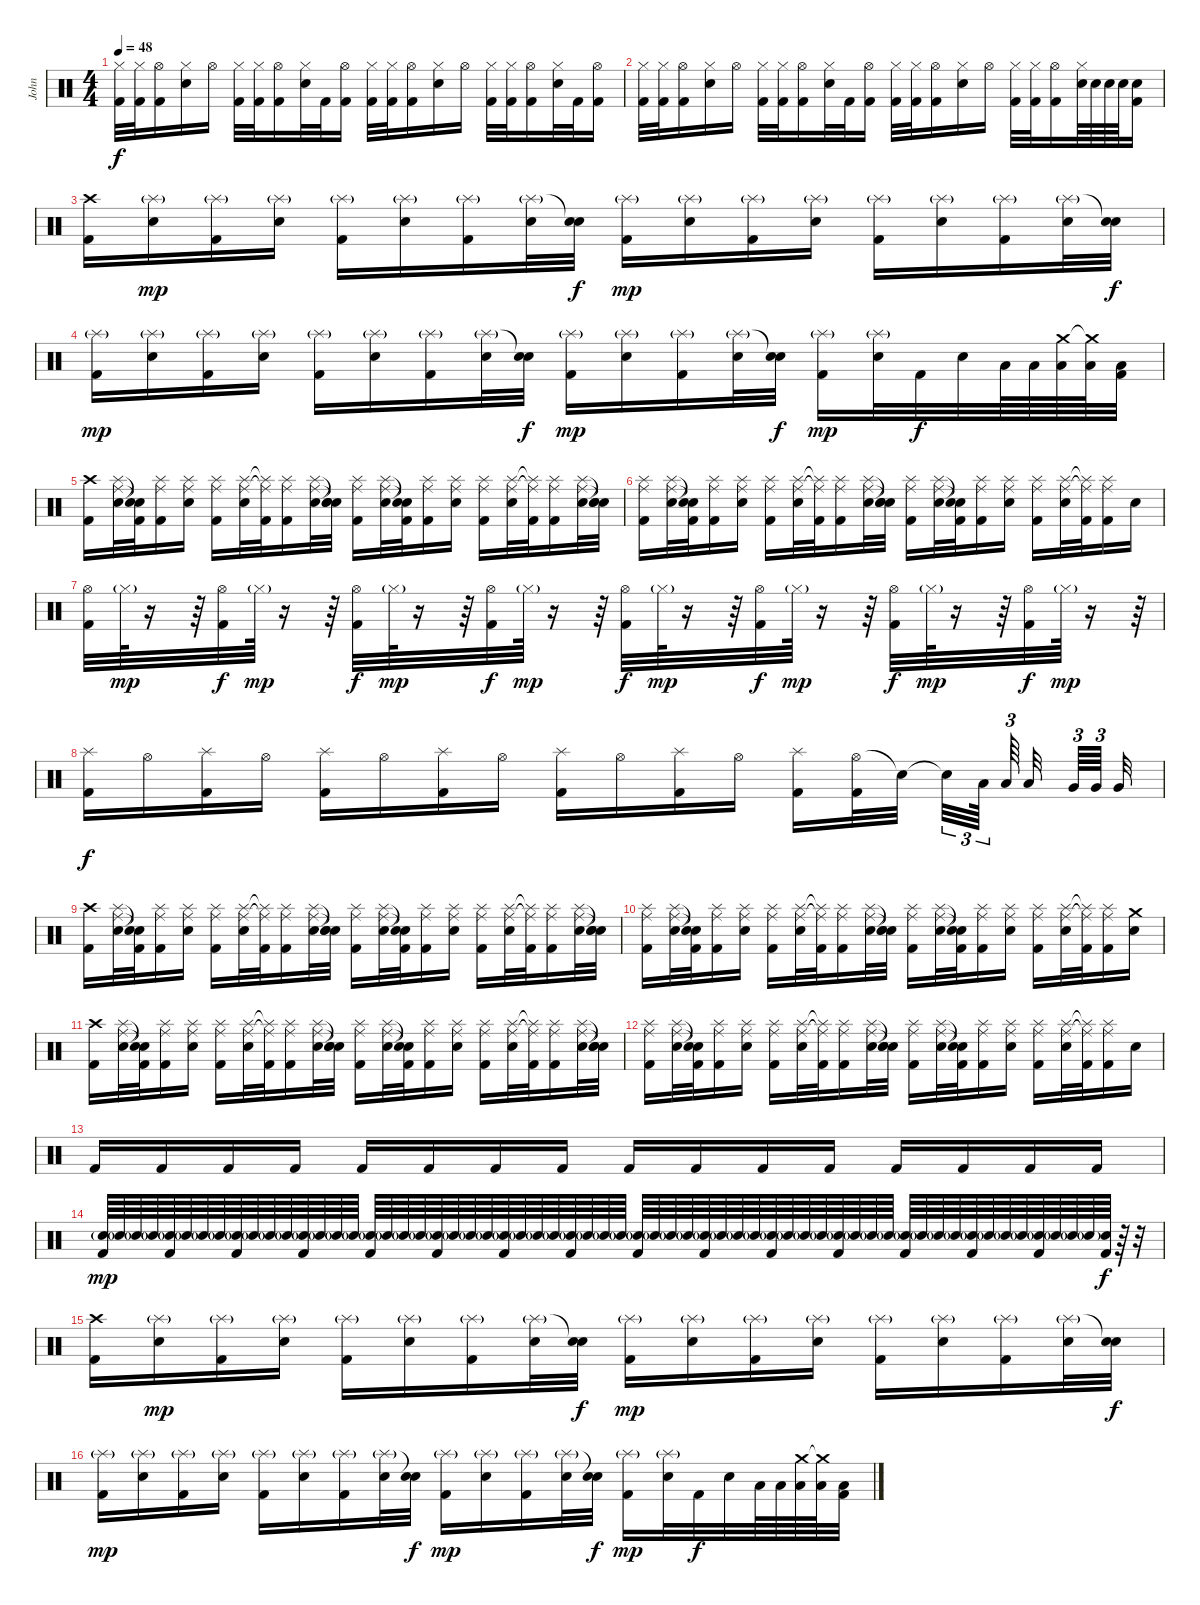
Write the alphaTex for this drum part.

\track ("John" "John") {instrument percussion}
\staff {score}
\articulation defaults
\ts (4 4)
\tempo 48
\clef neutral
\ks c
("Hi-Hat (closed)" "Kick (hit) 2").32{dy f} ("Hi-Hat (closed)" "Kick (hit) 2").32 ("Hi-Hat (open)" "Kick (hit) 2").16 ("Hi-Hat (closed)" "Electric Snare (hit)").16 "Hi-Hat (open)".16 ("Hi-Hat (closed)" "Kick (hit) 2").32 ("Hi-Hat (closed)" "Kick (hit) 2").32 ("Hi-Hat (open)" "Kick (hit) 2").16 ("Hi-Hat (closed)" "Electric Snare (hit)").32 "Kick (hit) 2".32 ("Hi-Hat (open)" "Kick (hit) 2").16 ("Hi-Hat (closed)" "Kick (hit) 2").32 ("Hi-Hat (closed)" "Kick (hit) 2").32 ("Hi-Hat (open)" "Kick (hit) 2").16 ("Hi-Hat (closed)" "Electric Snare (hit)").16 "Hi-Hat (open)".16 ("Hi-Hat (closed)" "Kick (hit) 2").32 ("Hi-Hat (closed)" "Kick (hit) 2").32 ("Hi-Hat (open)" "Kick (hit) 2").16 ("Hi-Hat (closed)" "Electric Snare (hit)").32 "Kick (hit) 2".32 ("Hi-Hat (open)" "Kick (hit) 2").16 |
("Hi-Hat (closed)" "Kick (hit) 2").32 ("Hi-Hat (closed)" "Kick (hit) 2").32 ("Hi-Hat (open)" "Kick (hit) 2").16 ("Hi-Hat (closed)" "Electric Snare (hit)").16 "Hi-Hat (open)".16 ("Hi-Hat (closed)" "Kick (hit) 2").32 ("Hi-Hat (closed)" "Kick (hit) 2").32 ("Hi-Hat (open)" "Kick (hit) 2").16 ("Hi-Hat (closed)" "Electric Snare (hit)").32 "Kick (hit) 2".32 ("Hi-Hat (open)" "Kick (hit) 2").16 ("Hi-Hat (closed)" "Kick (hit) 2").32 ("Hi-Hat (closed)" "Kick (hit) 2").32 ("Hi-Hat (open)" "Kick (hit) 2").16 ("Hi-Hat (closed)" "Electric Snare (hit)").16 "Hi-Hat (open)".16 ("Hi-Hat (closed)" "Kick (hit) 2").32 ("Hi-Hat (closed)" "Kick (hit) 2").32 ("Hi-Hat (open)" "Kick (hit) 2").16 ("Hi-Hat (closed)" "Electric Snare (hit)").64 "Electric Snare (hit)".64 "Electric Snare (hit)".64 "Electric Snare (hit)".64 ("Electric Snare (hit)" "Kick (hit) 2").16 |
("Crash high (hit)" "Kick (hit) 2").16 ("Splash (hit)"{g} "Electric Snare (hit)").16{dy mp} ("Splash (hit)"{g} "Kick (hit) 2").16 ("Splash (hit)"{g} "Electric Snare (hit)").16 ("Splash (hit)"{g} "Kick (hit) 2").16 ("Splash (hit)"{g} "Electric Snare (hit)").16 ("Splash (hit)"{g} "Kick (hit) 2").16 ("Splash (hit)"{g} "Electric Snare (hit)").32 ("Snare (hit)"{t} "Electric Snare (hit)").32{dy f} ("Splash (hit)"{g} "Kick (hit) 2").16{dy mp} ("Splash (hit)"{g} "Electric Snare (hit)").16 ("Splash (hit)"{g} "Kick (hit) 2").16 ("Splash (hit)"{g} "Electric Snare (hit)").16 ("Splash (hit)"{g} "Kick (hit) 2").16 ("Splash (hit)"{g} "Electric Snare (hit)").16 ("Splash (hit)"{g} "Kick (hit) 2").16 ("Splash (hit)"{g} "Electric Snare (hit)").32 ("Snare (hit)"{t} "Electric Snare (hit)").32{dy f} |
("Splash (hit)"{g} "Kick (hit) 2").16{dy mp} ("Splash (hit)"{g} "Electric Snare (hit)").16 ("Splash (hit)"{g} "Kick (hit) 2").16 ("Splash (hit)"{g} "Electric Snare (hit)").16 ("Splash (hit)"{g} "Kick (hit) 2").16 ("Splash (hit)"{g} "Electric Snare (hit)").16 ("Splash (hit)"{g} "Kick (hit) 2").16 ("Splash (hit)"{g} "Electric Snare (hit)").32 ("Snare (hit)"{t} "Electric Snare (hit)").32{dy f} ("Splash (hit)"{g} "Kick (hit) 2").16{dy mp} ("Splash (hit)"{g} "Electric Snare (hit)").16 ("Splash (hit)"{g} "Kick (hit) 2").16 ("Splash (hit)"{g} "Electric Snare (hit)").32 ("Snare (hit)"{t} "Electric Snare (hit)").32{dy f} ("Splash (hit)"{g} "Kick (hit) 2").16{dy mp} ("Splash (hit)"{g} "Electric Snare (hit)").32 "Kick (hit) 2".32{dy f} "Electric Snare (hit)".32 "Low Tom (hit)".64 "Low Tom (hit)".64 ("Crash medium (hit)" "Low Tom (hit)").64 ("Crash medium (hit)"{t} "Low Tom (hit)").64 ("Low Tom (hit)" "Kick (hit) 2").32 |
("Crash high (hit)" "Kick (hit) 2").16 ("Splash (hit)" "Ride (middle)" "Electric Snare (hit)").32 ("Snare (hit)"{t} "Snare (hit)"{t} "Kick (hit) 2").32 ("Splash (hit)" "Ride (middle)" "Kick (hit) 2").16 ("Splash (hit)" "Ride (middle)" "Electric Snare (hit)").16 ("Splash (hit)" "Ride (middle)" "Kick (hit) 2").16 ("Splash (hit)" "Ride (middle)" "Electric Snare (hit)").32 ("Splash (hit)"{t} "Ride (middle)"{t} "Kick (hit) 2").32 ("Splash (hit)" "Ride (middle)" "Kick (hit) 2").16 ("Splash (hit)" "Ride (middle)" "Electric Snare (hit)").32 ("Snare (hit)"{t} "Snare (hit)"{t} "Electric Snare (hit)").32 ("Splash (hit)" "Ride (middle)" "Kick (hit) 2").16 ("Splash (hit)" "Ride (middle)" "Electric Snare (hit)").32 ("Snare (hit)"{t} "Snare (hit)"{t} "Kick (hit) 2").32 ("Splash (hit)" "Ride (middle)" "Kick (hit) 2").16 ("Splash (hit)" "Ride (middle)" "Electric Snare (hit)").16 ("Splash (hit)" "Ride (middle)" "Kick (hit) 2").16 ("Splash (hit)" "Ride (middle)" "Electric Snare (hit)").32 ("Splash (hit)"{t} "Ride (middle)"{t} "Kick (hit) 2").32 ("Splash (hit)" "Ride (middle)" "Kick (hit) 2").16 ("Splash (hit)" "Ride (middle)" "Electric Snare (hit)").32 ("Snare (hit)"{t} "Snare (hit)"{t} "Electric Snare (hit)").32 |
("Splash (hit)" "Ride (middle)" "Kick (hit) 2").16 ("Splash (hit)" "Ride (middle)" "Electric Snare (hit)").32 ("Snare (hit)"{t} "Snare (hit)"{t} "Kick (hit) 2").32 ("Splash (hit)" "Ride (middle)" "Kick (hit) 2").16 ("Splash (hit)" "Ride (middle)" "Electric Snare (hit)").16 ("Splash (hit)" "Ride (middle)" "Kick (hit) 2").16 ("Splash (hit)" "Ride (middle)" "Electric Snare (hit)").32 ("Splash (hit)"{t} "Ride (middle)"{t} "Kick (hit) 2").32 ("Splash (hit)" "Ride (middle)" "Kick (hit) 2").16 ("Splash (hit)" "Ride (middle)" "Electric Snare (hit)").32 ("Snare (hit)"{t} "Snare (hit)"{t} "Electric Snare (hit)").32 ("Splash (hit)" "Ride (middle)" "Kick (hit) 2").16 ("Splash (hit)" "Ride (middle)" "Electric Snare (hit)").32 ("Snare (hit)"{t} "Snare (hit)"{t} "Kick (hit) 2").32 ("Splash (hit)" "Ride (middle)" "Kick (hit) 2").16 ("Splash (hit)" "Ride (middle)" "Electric Snare (hit)").16 ("Splash (hit)" "Ride (middle)" "Kick (hit) 2").16 ("Splash (hit)" "Ride (middle)" "Electric Snare (hit)").32 ("Splash (hit)"{t} "Ride (middle)"{t} "Kick (hit) 2").32 ("Splash (hit)" "Ride (middle)" "Kick (hit) 2").16 "Electric Snare (hit)".16 |
("Hi-Hat (open)" "Kick (hit) 2").32 "Hi-Hat (closed)"{g}.64{dy mp} r.16 r.64 ("Hi-Hat (open)" "Kick (hit) 2").32{dy f} "Hi-Hat (closed)"{g}.64{dy mp} r.16 r.64 ("Hi-Hat (open)" "Kick (hit) 2").32{dy f} "Hi-Hat (closed)"{g}.64{dy mp} r.16 r.64 ("Hi-Hat (open)" "Kick (hit) 2").32{dy f} "Hi-Hat (closed)"{g}.64{dy mp} r.16 r.64 ("Hi-Hat (open)" "Kick (hit) 2").32{dy f} "Hi-Hat (closed)"{g}.64{dy mp} r.16 r.64 ("Hi-Hat (open)" "Kick (hit) 2").32{dy f} "Hi-Hat (closed)"{g}.64{dy mp} r.16 r.64 ("Hi-Hat (open)" "Kick (hit) 2").32{dy f} "Hi-Hat (closed)"{g}.64{dy mp} r.16 r.64 ("Hi-Hat (open)" "Kick (hit) 2").32{dy f} "Hi-Hat (closed)"{g}.64{dy mp} r.16 r.64 |
("Splash (hit)" "Kick (hit) 2").16{dy f} "Hi-Hat (open)".16 ("Splash (hit)" "Kick (hit) 2").16 "Hi-Hat (open)".16 ("Splash (hit)" "Kick (hit) 2").16 "Hi-Hat (open)".16 ("Splash (hit)" "Kick (hit) 2").16 "Hi-Hat (open)".16 ("Splash (hit)" "Kick (hit) 2").16 "Hi-Hat (open)".16 ("Splash (hit)" "Kick (hit) 2").16 "Hi-Hat (open)".16 ("Splash (hit)" "Kick (hit) 2").16 ("Hi-Hat (open)" "Kick (hit) 2").32 "Snare (hit)"{t}.32 "Snare (hit)"{t}.32{tu (3 2)} "Low Tom (hit)".64{tu (3 2)} "Low Tom (hit)".64{tu (3 2)} "Low Tom (hit)".32 "Very Low Tom (hit)".64{tu (3 2)} "Very Low Tom (hit)".64{tu (3 2)} "Very Low Tom (hit)".32 |
("Crash high (hit)" "Kick (hit) 2").16 ("Splash (hit)" "Ride (middle)" "Electric Snare (hit)").32 ("Snare (hit)"{t} "Snare (hit)"{t} "Kick (hit) 2").32 ("Splash (hit)" "Ride (middle)" "Kick (hit) 2").16 ("Splash (hit)" "Ride (middle)" "Electric Snare (hit)").16 ("Splash (hit)" "Ride (middle)" "Kick (hit) 2").16 ("Splash (hit)" "Ride (middle)" "Electric Snare (hit)").32 ("Splash (hit)"{t} "Ride (middle)"{t} "Kick (hit) 2").32 ("Splash (hit)" "Ride (middle)" "Kick (hit) 2").16 ("Splash (hit)" "Ride (middle)" "Electric Snare (hit)").32 ("Snare (hit)"{t} "Snare (hit)"{t} "Electric Snare (hit)").32 ("Splash (hit)" "Ride (middle)" "Kick (hit) 2").16 ("Splash (hit)" "Ride (middle)" "Electric Snare (hit)").32 ("Snare (hit)"{t} "Snare (hit)"{t} "Kick (hit) 2").32 ("Splash (hit)" "Ride (middle)" "Kick (hit) 2").16 ("Splash (hit)" "Ride (middle)" "Electric Snare (hit)").16 ("Splash (hit)" "Ride (middle)" "Kick (hit) 2").16 ("Splash (hit)" "Ride (middle)" "Electric Snare (hit)").32 ("Splash (hit)"{t} "Ride (middle)"{t} "Kick (hit) 2").32 ("Splash (hit)" "Ride (middle)" "Kick (hit) 2").16 ("Splash (hit)" "Ride (middle)" "Electric Snare (hit)").32 ("Snare (hit)"{t} "Snare (hit)"{t} "Electric Snare (hit)").32 |
("Splash (hit)" "Ride (middle)" "Kick (hit) 2").16 ("Splash (hit)" "Ride (middle)" "Electric Snare (hit)").32 ("Snare (hit)"{t} "Snare (hit)"{t} "Kick (hit) 2").32 ("Splash (hit)" "Ride (middle)" "Kick (hit) 2").16 ("Splash (hit)" "Ride (middle)" "Electric Snare (hit)").16 ("Splash (hit)" "Ride (middle)" "Kick (hit) 2").16 ("Splash (hit)" "Ride (middle)" "Electric Snare (hit)").32 ("Splash (hit)"{t} "Ride (middle)"{t} "Kick (hit) 2").32 ("Splash (hit)" "Ride (middle)" "Kick (hit) 2").16 ("Splash (hit)" "Ride (middle)" "Electric Snare (hit)").32 ("Snare (hit)"{t} "Snare (hit)"{t} "Electric Snare (hit)").32 ("Splash (hit)" "Ride (middle)" "Kick (hit) 2").16 ("Splash (hit)" "Ride (middle)" "Electric Snare (hit)").32 ("Snare (hit)"{t} "Snare (hit)"{t} "Kick (hit) 2").32 ("Splash (hit)" "Ride (middle)" "Kick (hit) 2").16 ("Splash (hit)" "Ride (middle)" "Electric Snare (hit)").16 ("Splash (hit)" "Ride (middle)" "Kick (hit) 2").16 ("Splash (hit)" "Ride (middle)" "Electric Snare (hit)").32 ("Splash (hit)"{t} "Ride (middle)"{t} "Kick (hit) 2").32 ("Splash (hit)" "Ride (middle)" "Kick (hit) 2").16 ("Crash medium (hit)" "Electric Snare (hit)").16 |
("Crash high (hit)" "Kick (hit) 2").16 ("Splash (hit)" "Ride (middle)" "Electric Snare (hit)").32 ("Snare (hit)"{t} "Snare (hit)"{t} "Kick (hit) 2").32 ("Splash (hit)" "Ride (middle)" "Kick (hit) 2").16 ("Splash (hit)" "Ride (middle)" "Electric Snare (hit)").16 ("Splash (hit)" "Ride (middle)" "Kick (hit) 2").16 ("Splash (hit)" "Ride (middle)" "Electric Snare (hit)").32 ("Splash (hit)"{t} "Ride (middle)"{t} "Kick (hit) 2").32 ("Splash (hit)" "Ride (middle)" "Kick (hit) 2").16 ("Splash (hit)" "Ride (middle)" "Electric Snare (hit)").32 ("Snare (hit)"{t} "Snare (hit)"{t} "Electric Snare (hit)").32 ("Splash (hit)" "Ride (middle)" "Kick (hit) 2").16 ("Splash (hit)" "Ride (middle)" "Electric Snare (hit)").32 ("Snare (hit)"{t} "Snare (hit)"{t} "Kick (hit) 2").32 ("Splash (hit)" "Ride (middle)" "Kick (hit) 2").16 ("Splash (hit)" "Ride (middle)" "Electric Snare (hit)").16 ("Splash (hit)" "Ride (middle)" "Kick (hit) 2").16 ("Splash (hit)" "Ride (middle)" "Electric Snare (hit)").32 ("Splash (hit)"{t} "Ride (middle)"{t} "Kick (hit) 2").32 ("Splash (hit)" "Ride (middle)" "Kick (hit) 2").16 ("Splash (hit)" "Ride (middle)" "Electric Snare (hit)").32 ("Snare (hit)"{t} "Snare (hit)"{t} "Electric Snare (hit)").32 |
("Splash (hit)" "Ride (middle)" "Kick (hit) 2").16 ("Splash (hit)" "Ride (middle)" "Electric Snare (hit)").32 ("Snare (hit)"{t} "Snare (hit)"{t} "Kick (hit) 2").32 ("Splash (hit)" "Ride (middle)" "Kick (hit) 2").16 ("Splash (hit)" "Ride (middle)" "Electric Snare (hit)").16 ("Splash (hit)" "Ride (middle)" "Kick (hit) 2").16 ("Splash (hit)" "Ride (middle)" "Electric Snare (hit)").32 ("Splash (hit)"{t} "Ride (middle)"{t} "Kick (hit) 2").32 ("Splash (hit)" "Ride (middle)" "Kick (hit) 2").16 ("Splash (hit)" "Ride (middle)" "Electric Snare (hit)").32 ("Snare (hit)"{t} "Snare (hit)"{t} "Electric Snare (hit)").32 ("Splash (hit)" "Ride (middle)" "Kick (hit) 2").16 ("Splash (hit)" "Ride (middle)" "Electric Snare (hit)").32 ("Snare (hit)"{t} "Snare (hit)"{t} "Kick (hit) 2").32 ("Splash (hit)" "Ride (middle)" "Kick (hit) 2").16 ("Splash (hit)" "Ride (middle)" "Electric Snare (hit)").16 ("Splash (hit)" "Ride (middle)" "Kick (hit) 2").16 ("Splash (hit)" "Ride (middle)" "Electric Snare (hit)").32 ("Splash (hit)"{t} "Ride (middle)"{t} "Kick (hit) 2").32 ("Splash (hit)" "Ride (middle)" "Kick (hit) 2").16 "Electric Snare (hit)".16 |
"Kick (hit) 2".16 "Kick (hit) 2".16 "Kick (hit) 2".16 "Kick (hit) 2".16 "Kick (hit) 2".16 "Kick (hit) 2".16 "Kick (hit) 2".16 "Kick (hit) 2".16 "Kick (hit) 2".16 "Kick (hit) 2".16 "Kick (hit) 2".16 "Kick (hit) 2".16 "Kick (hit) 2".16 "Kick (hit) 2".16 "Kick (hit) 2".16 "Kick (hit) 2".16 |
("Electric Snare (hit)"{g} "Kick (hit) 2").64{dy mp volume 11} "Electric Snare (hit)"{g}.64{volume 16} "Electric Snare (hit)"{g}.64 "Electric Snare (hit)"{g}.64 ("Electric Snare (hit)"{g} "Kick (hit) 2").64 "Electric Snare (hit)"{g}.64 "Electric Snare (hit)"{g}.64 "Electric Snare (hit)"{g}.64 ("Electric Snare (hit)"{g} "Kick (hit) 2").64 "Electric Snare (hit)"{g}.64 "Electric Snare (hit)"{g}.64 "Electric Snare (hit)"{g}.64 ("Electric Snare (hit)"{g} "Kick (hit) 2").64 "Electric Snare (hit)"{g}.64 "Electric Snare (hit)"{g}.64 "Electric Snare (hit)"{g}.64 ("Electric Snare (hit)"{g} "Kick (hit) 2").64 "Electric Snare (hit)"{g}.64 "Electric Snare (hit)"{g}.64 "Electric Snare (hit)"{g}.64 ("Electric Snare (hit)"{g} "Kick (hit) 2").64 "Electric Snare (hit)"{g}.64 "Electric Snare (hit)"{g}.64 "Electric Snare (hit)"{g}.64 ("Electric Snare (hit)"{g} "Kick (hit) 2").64 "Electric Snare (hit)"{g}.64 "Electric Snare (hit)"{g}.64 "Electric Snare (hit)"{g}.64 ("Electric Snare (hit)"{g} "Kick (hit) 2").64 "Electric Snare (hit)"{g}.64 "Electric Snare (hit)"{g}.64 "Electric Snare (hit)"{g}.64 ("Electric Snare (hit)"{g} "Kick (hit) 2").64 "Electric Snare (hit)"{g}.64 "Electric Snare (hit)"{g}.64 "Electric Snare (hit)"{g}.64 ("Electric Snare (hit)"{g} "Kick (hit) 2").64 "Electric Snare (hit)"{g}.64 "Electric Snare (hit)"{g}.64 "Electric Snare (hit)"{g}.64 ("Electric Snare (hit)"{g} "Kick (hit) 2").64 "Electric Snare (hit)"{g}.64 "Electric Snare (hit)"{g}.64 "Electric Snare (hit)"{g}.64 ("Electric Snare (hit)"{g} "Kick (hit) 2").64 "Electric Snare (hit)"{g}.64 "Electric Snare (hit)"{g}.64 "Electric Snare (hit)"{g}.64 ("Electric Snare (hit)"{g} "Kick (hit) 2").64 "Electric Snare (hit)"{g}.64 "Electric Snare (hit)"{g}.64 "Electric Snare (hit)"{g}.64 ("Electric Snare (hit)"{g} "Kick (hit) 2").64 "Electric Snare (hit)"{g}.64 "Electric Snare (hit)"{g}.64 "Electric Snare (hit)"{g}.64 ("Electric Snare (hit)"{g} "Kick (hit) 2").64 "Electric Snare (hit)"{g}.64 "Electric Snare (hit)"{g}.64 "Electric Snare (hit)"{g}.64 ("Electric Snare (hit)" "Kick (hit) 2").64{dy f} r.64 r.32 |
("Crash high (hit)" "Kick (hit) 2").16{volume 14} ("Splash (hit)"{g} "Electric Snare (hit)").16{dy mp} ("Splash (hit)"{g} "Kick (hit) 2").16 ("Splash (hit)"{g} "Electric Snare (hit)").16 ("Splash (hit)"{g} "Kick (hit) 2").16 ("Splash (hit)"{g} "Electric Snare (hit)").16 ("Splash (hit)"{g} "Kick (hit) 2").16 ("Splash (hit)"{g} "Electric Snare (hit)").32 ("Snare (hit)"{t} "Electric Snare (hit)").32{dy f} ("Splash (hit)"{g} "Kick (hit) 2").16{dy mp} ("Splash (hit)"{g} "Electric Snare (hit)").16 ("Splash (hit)"{g} "Kick (hit) 2").16 ("Splash (hit)"{g} "Electric Snare (hit)").16 ("Splash (hit)"{g} "Kick (hit) 2").16 ("Splash (hit)"{g} "Electric Snare (hit)").16 ("Splash (hit)"{g} "Kick (hit) 2").16 ("Splash (hit)"{g} "Electric Snare (hit)").32 ("Snare (hit)"{t} "Electric Snare (hit)").32{dy f} |
("Splash (hit)"{g} "Kick (hit) 2").16{dy mp} ("Splash (hit)"{g} "Electric Snare (hit)").16 ("Splash (hit)"{g} "Kick (hit) 2").16 ("Splash (hit)"{g} "Electric Snare (hit)").16 ("Splash (hit)"{g} "Kick (hit) 2").16 ("Splash (hit)"{g} "Electric Snare (hit)").16 ("Splash (hit)"{g} "Kick (hit) 2").16 ("Splash (hit)"{g} "Electric Snare (hit)").32 ("Snare (hit)"{t} "Electric Snare (hit)").32{dy f} ("Splash (hit)"{g} "Kick (hit) 2").16{dy mp} ("Splash (hit)"{g} "Electric Snare (hit)").16 ("Splash (hit)"{g} "Kick (hit) 2").16 ("Splash (hit)"{g} "Electric Snare (hit)").32 ("Snare (hit)"{t} "Electric Snare (hit)").32{dy f} ("Splash (hit)"{g} "Kick (hit) 2").16{dy mp} ("Splash (hit)"{g} "Electric Snare (hit)").32 "Kick (hit) 2".32{dy f} "Electric Snare (hit)".32 "Low Tom (hit)".64 "Low Tom (hit)".64 ("Crash medium (hit)" "Low Tom (hit)").64 ("Crash medium (hit)"{t} "Low Tom (hit)").64 ("Low Tom (hit)" "Kick (hit) 2").32
